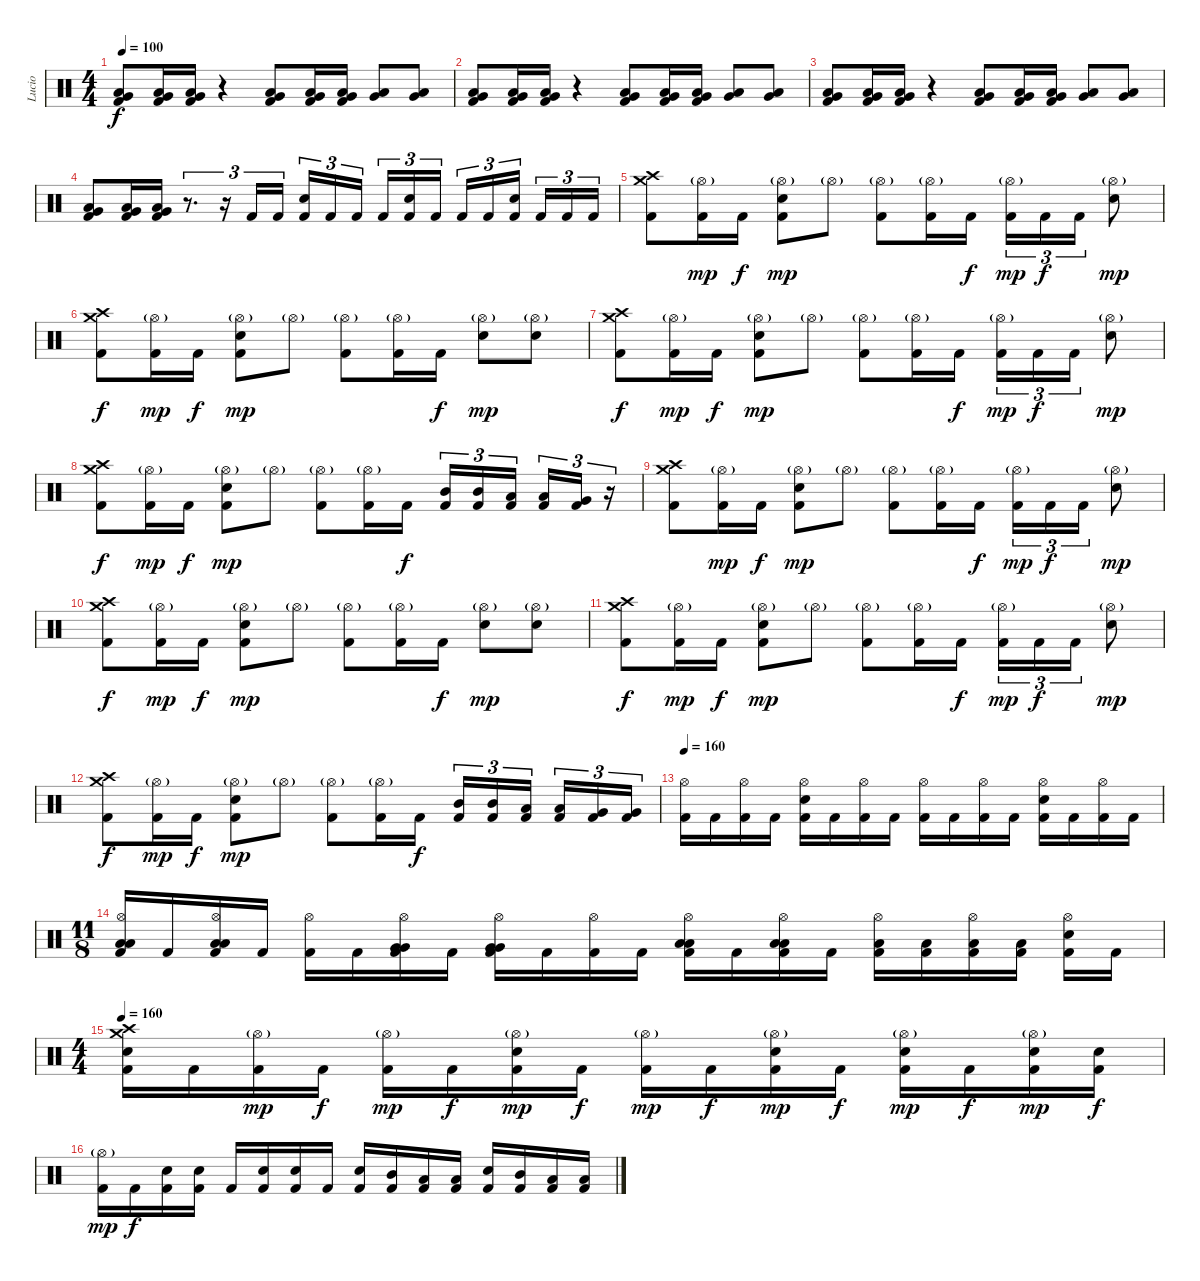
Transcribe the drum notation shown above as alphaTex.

\track ("Lucio" "Lucio") {instrument percussion}
\staff {score}
\articulation defaults
\ts (4 4)
\tempo 100
\clef neutral
\ks c
("Low Floor Tom (hit)" "Very Low Tom (hit)" "Kick (hit) 2").8{dy f} ("Low Floor Tom (hit)" "Very Low Tom (hit)" "Kick (hit) 2").16 ("Low Floor Tom (hit)" "Very Low Tom (hit)" "Kick (hit) 2").16 r.4 ("Low Floor Tom (hit)" "Very Low Tom (hit)" "Kick (hit) 2").8 ("Low Floor Tom (hit)" "Very Low Tom (hit)" "Kick (hit) 2").16 ("Low Floor Tom (hit)" "Very Low Tom (hit)" "Kick (hit) 2").16 ("Low Floor Tom (hit)" "Very Low Tom (hit)").8 ("Low Floor Tom (hit)" "Very Low Tom (hit)").8 |
("Low Floor Tom (hit)" "Very Low Tom (hit)" "Kick (hit) 2").8 ("Low Floor Tom (hit)" "Very Low Tom (hit)" "Kick (hit) 2").16 ("Low Floor Tom (hit)" "Very Low Tom (hit)" "Kick (hit) 2").16 r.4 ("Low Floor Tom (hit)" "Very Low Tom (hit)" "Kick (hit) 2").8 ("Low Floor Tom (hit)" "Very Low Tom (hit)" "Kick (hit) 2").16 ("Low Floor Tom (hit)" "Very Low Tom (hit)" "Kick (hit) 2").16 ("Low Floor Tom (hit)" "Very Low Tom (hit)").8 ("Low Floor Tom (hit)" "Very Low Tom (hit)").8 |
("Low Floor Tom (hit)" "Very Low Tom (hit)" "Kick (hit) 2").8 ("Low Floor Tom (hit)" "Very Low Tom (hit)" "Kick (hit) 2").16 ("Low Floor Tom (hit)" "Very Low Tom (hit)" "Kick (hit) 2").16 r.4 ("Low Floor Tom (hit)" "Very Low Tom (hit)" "Kick (hit) 2").8 ("Low Floor Tom (hit)" "Very Low Tom (hit)" "Kick (hit) 2").16 ("Low Floor Tom (hit)" "Very Low Tom (hit)" "Kick (hit) 2").16 ("Low Floor Tom (hit)" "Very Low Tom (hit)").8 ("Low Floor Tom (hit)" "Very Low Tom (hit)").8 |
("Low Floor Tom (hit)" "Very Low Tom (hit)" "Kick (hit) 2").8 ("Low Floor Tom (hit)" "Very Low Tom (hit)" "Kick (hit) 2").16 ("Low Floor Tom (hit)" "Very Low Tom (hit)" "Kick (hit) 2").16 r.8{d tu (3 2)} r.16{tu (3 2)} "Kick (hit) 2".16{tu (3 2)} "Kick (hit) 2".16{tu (3 2)} ("Electric Snare (hit)" "Kick (hit) 2").16{tu (3 2)} "Kick (hit) 2".16{tu (3 2)} "Kick (hit) 2".16{tu (3 2) beam splitsecondary} "Kick (hit) 2".16{tu (3 2)} ("Electric Snare (hit)" "Kick (hit) 2").16{tu (3 2)} "Kick (hit) 2".16{tu (3 2)} "Kick (hit) 2".16{tu (3 2)} "Kick (hit) 2".16{tu (3 2)} ("Electric Snare (hit)" "Kick (hit) 2").16{tu (3 2) beam splitsecondary} "Kick (hit) 2".16{tu (3 2)} "Kick (hit) 2".16{tu (3 2)} "Kick (hit) 2".16{tu (3 2)} |
("Crash medium (hit)" "Crash high (hit)" "Kick (hit) 2").8 ("Hi-Hat (open)"{g} "Kick (hit) 2").16{dy mp} "Kick (hit) 2".16{dy f} ("Hi-Hat (open)"{g} "Electric Snare (hit)" "Kick (hit) 2").8{dy mp} "Hi-Hat (open)"{g}.8 ("Hi-Hat (open)"{g} "Kick (hit) 2").8 ("Hi-Hat (open)"{g} "Kick (hit) 2").16 "Kick (hit) 2".16{dy f} ("Hi-Hat (open)"{g} "Kick (hit) 2").16{tu (3 2) dy mp} "Kick (hit) 2".16{tu (3 2) dy f} "Kick (hit) 2".16{tu (3 2)} ("Hi-Hat (open)"{g} "Electric Snare (hit)").8{dy mp} |
("Crash medium (hit)" "Crash high (hit)" "Kick (hit) 2").8{dy f} ("Hi-Hat (open)"{g} "Kick (hit) 2").16{dy mp} "Kick (hit) 2".16{dy f} ("Hi-Hat (open)"{g} "Electric Snare (hit)" "Kick (hit) 2").8{dy mp} "Hi-Hat (open)"{g}.8 ("Hi-Hat (open)"{g} "Kick (hit) 2").8 ("Hi-Hat (open)"{g} "Kick (hit) 2").16 "Kick (hit) 2".16{dy f} ("Hi-Hat (open)"{g} "Electric Snare (hit)").8{dy mp} ("Hi-Hat (open)"{g} "Electric Snare (hit)").8 |
("Crash medium (hit)" "Crash high (hit)" "Kick (hit) 2").8{dy f} ("Hi-Hat (open)"{g} "Kick (hit) 2").16{dy mp} "Kick (hit) 2".16{dy f} ("Hi-Hat (open)"{g} "Electric Snare (hit)" "Kick (hit) 2").8{dy mp} "Hi-Hat (open)"{g}.8 ("Hi-Hat (open)"{g} "Kick (hit) 2").8 ("Hi-Hat (open)"{g} "Kick (hit) 2").16 "Kick (hit) 2".16{dy f} ("Hi-Hat (open)"{g} "Kick (hit) 2").16{tu (3 2) dy mp} "Kick (hit) 2".16{tu (3 2) dy f} "Kick (hit) 2".16{tu (3 2)} ("Hi-Hat (open)"{g} "Electric Snare (hit)").8{dy mp} |
("Crash medium (hit)" "Crash high (hit)" "Kick (hit) 2").8{dy f} ("Hi-Hat (open)"{g} "Kick (hit) 2").16{dy mp} "Kick (hit) 2".16{dy f} ("Hi-Hat (open)"{g} "Electric Snare (hit)" "Kick (hit) 2").8{dy mp} "Hi-Hat (open)"{g}.8 ("Hi-Hat (open)"{g} "Kick (hit) 2").8 ("Hi-Hat (open)"{g} "Kick (hit) 2").16 "Kick (hit) 2".16{dy f} ("Mid Tom (hit)" "Kick (hit) 2").16{tu (3 2)} ("Mid Tom (hit)" "Kick (hit) 2").16{tu (3 2)} ("Low Tom (hit)" "Kick (hit) 2").16{tu (3 2) beam splitsecondary} ("Low Tom (hit)" "Kick (hit) 2").16{tu (3 2)} ("Very Low Tom (hit)" "Kick (hit) 2").16{tu (3 2)} r.16{tu (3 2)} |
("Crash medium (hit)" "Crash high (hit)" "Kick (hit) 2").8 ("Hi-Hat (open)"{g} "Kick (hit) 2").16{dy mp} "Kick (hit) 2".16{dy f} ("Hi-Hat (open)"{g} "Electric Snare (hit)" "Kick (hit) 2").8{dy mp} "Hi-Hat (open)"{g}.8 ("Hi-Hat (open)"{g} "Kick (hit) 2").8 ("Hi-Hat (open)"{g} "Kick (hit) 2").16 "Kick (hit) 2".16{dy f} ("Hi-Hat (open)"{g} "Kick (hit) 2").16{tu (3 2) dy mp} "Kick (hit) 2".16{tu (3 2) dy f} "Kick (hit) 2".16{tu (3 2)} ("Hi-Hat (open)"{g} "Electric Snare (hit)").8{dy mp} |
("Crash medium (hit)" "Crash high (hit)" "Kick (hit) 2").8{dy f} ("Hi-Hat (open)"{g} "Kick (hit) 2").16{dy mp} "Kick (hit) 2".16{dy f} ("Hi-Hat (open)"{g} "Electric Snare (hit)" "Kick (hit) 2").8{dy mp} "Hi-Hat (open)"{g}.8 ("Hi-Hat (open)"{g} "Kick (hit) 2").8 ("Hi-Hat (open)"{g} "Kick (hit) 2").16 "Kick (hit) 2".16{dy f} ("Hi-Hat (open)"{g} "Electric Snare (hit)").8{dy mp} ("Hi-Hat (open)"{g} "Electric Snare (hit)").8 |
("Crash medium (hit)" "Crash high (hit)" "Kick (hit) 2").8{dy f} ("Hi-Hat (open)"{g} "Kick (hit) 2").16{dy mp} "Kick (hit) 2".16{dy f} ("Hi-Hat (open)"{g} "Electric Snare (hit)" "Kick (hit) 2").8{dy mp} "Hi-Hat (open)"{g}.8 ("Hi-Hat (open)"{g} "Kick (hit) 2").8 ("Hi-Hat (open)"{g} "Kick (hit) 2").16 "Kick (hit) 2".16{dy f} ("Hi-Hat (open)"{g} "Kick (hit) 2").16{tu (3 2) dy mp} "Kick (hit) 2".16{tu (3 2) dy f} "Kick (hit) 2".16{tu (3 2)} ("Hi-Hat (open)"{g} "Electric Snare (hit)").8{dy mp} |
("Crash medium (hit)" "Crash high (hit)" "Kick (hit) 2").8{dy f} ("Hi-Hat (open)"{g} "Kick (hit) 2").16{dy mp} "Kick (hit) 2".16{dy f} ("Hi-Hat (open)"{g} "Electric Snare (hit)" "Kick (hit) 2").8{dy mp} "Hi-Hat (open)"{g}.8 ("Hi-Hat (open)"{g} "Kick (hit) 2").8 ("Hi-Hat (open)"{g} "Kick (hit) 2").16 "Kick (hit) 2".16{dy f} ("Mid Tom (hit)" "Kick (hit) 2").16{tu (3 2)} ("Mid Tom (hit)" "Kick (hit) 2").16{tu (3 2)} ("Low Tom (hit)" "Kick (hit) 2").16{tu (3 2) beam splitsecondary} ("Low Tom (hit)" "Kick (hit) 2").16{tu (3 2)} ("Very Low Tom (hit)" "Kick (hit) 2").16{tu (3 2)} ("Very Low Tom (hit)" "Kick (hit) 2").16{tu (3 2)} |
\tempo 160
("Hi-Hat (open)" "Kick (hit) 2").16 "Kick (hit) 2".16 ("Hi-Hat (open)" "Kick (hit) 2").16 "Kick (hit) 2".16 ("Hi-Hat (open)" "Electric Snare (hit)" "Kick (hit) 2").16 "Kick (hit) 2".16 ("Hi-Hat (open)" "Kick (hit) 2").16 "Kick (hit) 2".16 ("Hi-Hat (open)" "Kick (hit) 2").16 "Kick (hit) 2".16 ("Hi-Hat (open)" "Kick (hit) 2").16 "Kick (hit) 2".16 ("Hi-Hat (open)" "Electric Snare (hit)" "Kick (hit) 2").16 "Kick (hit) 2".16 ("Hi-Hat (open)" "Kick (hit) 2").16 "Kick (hit) 2".16 |
\ts (11 8)
("Hi-Hat (open)" "Low Tom (hit)" "Low Tom (hit)" "Kick (hit) 2").16 "Kick (hit) 2".16 ("Hi-Hat (open)" "Low Tom (hit)" "Low Tom (hit)" "Kick (hit) 2").16 "Kick (hit) 2".16 ("Hi-Hat (open)" "Kick (hit) 2").16 "Kick (hit) 2".16 ("Hi-Hat (open)" "Very Low Tom (hit)" "Very Low Tom (hit)" "Kick (hit) 2").16 "Kick (hit) 2".16 ("Hi-Hat (open)" "Very Low Tom (hit)" "Very Low Tom (hit)" "Kick (hit) 2").16 "Kick (hit) 2".16 ("Hi-Hat (open)" "Kick (hit) 2").16 "Kick (hit) 2".16 ("Hi-Hat (open)" "Low Floor Tom (hit)" "Low Floor Tom (hit)" "Kick (hit) 2").16 "Kick (hit) 2".16 ("Hi-Hat (open)" "Low Floor Tom (hit)" "Low Floor Tom (hit)" "Kick (hit) 2").16 "Kick (hit) 2".16 ("Hi-Hat (open)" "Low Floor Tom (hit)" "Kick (hit) 2").16 ("Low Floor Tom (hit)" "Kick (hit) 2").16 ("Hi-Hat (open)" "Low Floor Tom (hit)" "Kick (hit) 2").16 ("Low Floor Tom (hit)" "Kick (hit) 2").16 ("Hi-Hat (open)" "Electric Snare (hit)" "Kick (hit) 2").16 "Kick (hit) 2".16 |
\ts (4 4)
\tempo 160
("Crash medium (hit)" "Crash high (hit)" "Electric Snare (hit)" "Kick (hit) 2").16 "Kick (hit) 2".16 ("Hi-Hat (open)"{g} "Kick (hit) 2").16{dy mp} "Kick (hit) 2".16{dy f} ("Hi-Hat (open)"{g} "Kick (hit) 2").16{dy mp} "Kick (hit) 2".16{dy f} ("Hi-Hat (open)"{g} "Electric Snare (hit)" "Kick (hit) 2").16{dy mp} "Kick (hit) 2".16{dy f} ("Hi-Hat (open)"{g} "Kick (hit) 2").16{dy mp} "Kick (hit) 2".16{dy f} ("Hi-Hat (open)"{g} "Electric Snare (hit)" "Kick (hit) 2").16{dy mp} "Kick (hit) 2".16{dy f} ("Hi-Hat (open)"{g} "Electric Snare (hit)" "Kick (hit) 2").16{dy mp} "Kick (hit) 2".16{dy f} ("Hi-Hat (open)"{g} "Electric Snare (hit)" "Kick (hit) 2").16{dy mp} ("Electric Snare (hit)" "Kick (hit) 2").16{dy f} |
("Hi-Hat (open)"{g} "Kick (hit) 2").16{dy mp} "Kick (hit) 2".16{dy f} ("Electric Snare (hit)" "Kick (hit) 2").16 ("Electric Snare (hit)" "Kick (hit) 2").16 "Kick (hit) 2".16 ("Electric Snare (hit)" "Kick (hit) 2").16 ("Electric Snare (hit)" "Kick (hit) 2").16 "Kick (hit) 2".16 ("Electric Snare (hit)" "Kick (hit) 2").16 ("Mid Tom (hit)" "Kick (hit) 2").16 ("Low Tom (hit)" "Kick (hit) 2").16 ("Low Tom (hit)" "Kick (hit) 2").16 ("Electric Snare (hit)" "Kick (hit) 2").16 ("Mid Tom (hit)" "Kick (hit) 2").16 ("Low Tom (hit)" "Kick (hit) 2").16 ("Low Tom (hit)" "Kick (hit) 2").16
